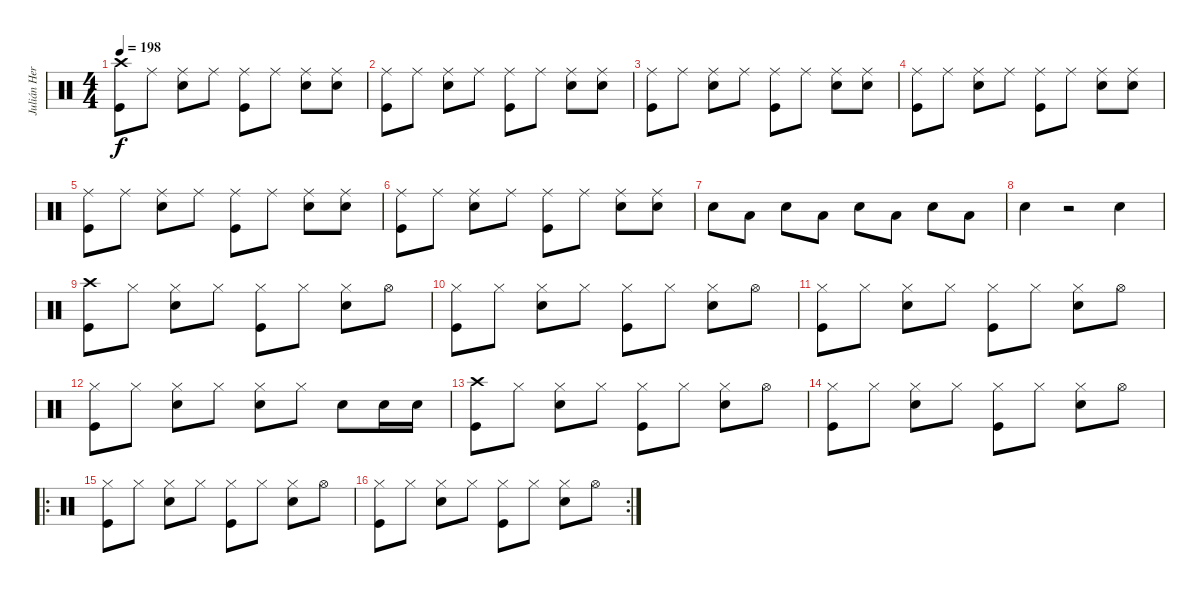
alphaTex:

\track ("Julián Hernández - Batería" "Julián Her") {instrument percussion}
\staff {score}
\articulation defaults
\ts (4 4)
\tempo 198
\clef neutral
\ks c
("Crash high (hit)" "Kick (hit)").8{dy f} "Ride (middle)".8 ("Ride (middle)" "Electric Snare (hit)").8 "Ride (middle)".8 ("Ride (middle)" "Kick (hit)").8 "Ride (middle)".8 ("Ride (middle)" "Electric Snare (hit)").8 ("Ride (middle)" "Electric Snare (hit)").8 |
("Ride (middle)" "Kick (hit)").8 "Ride (middle)".8 ("Ride (middle)" "Electric Snare (hit)").8 "Ride (middle)".8 ("Ride (middle)" "Kick (hit)").8 "Ride (middle)".8 ("Ride (middle)" "Electric Snare (hit)").8 ("Ride (middle)" "Electric Snare (hit)").8 |
("Ride (middle)" "Kick (hit)").8 "Ride (middle)".8 ("Ride (middle)" "Electric Snare (hit)").8 "Ride (middle)".8 ("Ride (middle)" "Kick (hit)").8 "Ride (middle)".8 ("Ride (middle)" "Electric Snare (hit)").8 ("Ride (middle)" "Electric Snare (hit)").8 |
("Ride (middle)" "Kick (hit)").8 "Ride (middle)".8 ("Ride (middle)" "Electric Snare (hit)").8 "Ride (middle)".8 ("Ride (middle)" "Kick (hit)").8 "Ride (middle)".8 ("Ride (middle)" "Electric Snare (hit)").8 ("Ride (middle)" "Electric Snare (hit)").8 |
("Ride (middle)" "Kick (hit)").8 "Ride (middle)".8 ("Ride (middle)" "Electric Snare (hit)").8 "Ride (middle)".8 ("Ride (middle)" "Kick (hit)").8 "Ride (middle)".8 ("Ride (middle)" "Electric Snare (hit)").8 ("Ride (middle)" "Electric Snare (hit)").8 |
("Ride (middle)" "Kick (hit)").8 "Ride (middle)".8 ("Ride (middle)" "Electric Snare (hit)").8 "Ride (middle)".8 ("Ride (middle)" "Kick (hit)").8 "Ride (middle)".8 ("Ride (middle)" "Electric Snare (hit)").8 ("Ride (middle)" "Electric Snare (hit)").8 |
"Electric Snare (hit)".8 "Low Floor Tom (hit)".8 "Electric Snare (hit)".8 "Low Floor Tom (hit)".8 "Electric Snare (hit)".8 "Low Floor Tom (hit)".8 "Electric Snare (hit)".8 "Low Floor Tom (hit)".8 |
"Electric Snare (hit)".4 r.2 "Electric Snare (hit)".4 |
("Crash high (hit)" "Kick (hit)").8 "Hi-Hat (closed)".8 ("Hi-Hat (closed)" "Electric Snare (hit)").8 "Hi-Hat (closed)".8 ("Hi-Hat (closed)" "Kick (hit)").8 "Hi-Hat (closed)".8 ("Hi-Hat (closed)" "Electric Snare (hit)").8 "Hi-Hat (open)".8 |
("Hi-Hat (closed)" "Kick (hit)").8 "Hi-Hat (closed)".8 ("Hi-Hat (closed)" "Electric Snare (hit)").8 "Hi-Hat (closed)".8 ("Hi-Hat (closed)" "Kick (hit)").8 "Hi-Hat (closed)".8 ("Hi-Hat (closed)" "Electric Snare (hit)").8 "Hi-Hat (open)".8 |
("Hi-Hat (closed)" "Kick (hit)").8 "Hi-Hat (closed)".8 ("Hi-Hat (closed)" "Electric Snare (hit)").8 "Hi-Hat (closed)".8 ("Hi-Hat (closed)" "Kick (hit)").8 "Hi-Hat (closed)".8 ("Hi-Hat (closed)" "Electric Snare (hit)").8 "Hi-Hat (open)".8 |
("Hi-Hat (closed)" "Kick (hit)").8 "Hi-Hat (closed)".8 ("Hi-Hat (closed)" "Electric Snare (hit)").8 "Hi-Hat (closed)".8 ("Hi-Hat (closed)" "Electric Snare (hit)").8 "Hi-Hat (closed)".8 "Electric Snare (hit)".8 "Electric Snare (hit)".16 "Electric Snare (hit)".16 |
("Crash high (hit)" "Kick (hit)").8 "Hi-Hat (closed)".8 ("Hi-Hat (closed)" "Electric Snare (hit)").8 "Hi-Hat (closed)".8 ("Hi-Hat (closed)" "Kick (hit)").8 "Hi-Hat (closed)".8 ("Hi-Hat (closed)" "Electric Snare (hit)").8 "Hi-Hat (open)".8 |
("Hi-Hat (closed)" "Kick (hit)").8 "Hi-Hat (closed)".8 ("Hi-Hat (closed)" "Electric Snare (hit)").8 "Hi-Hat (closed)".8 ("Hi-Hat (closed)" "Kick (hit)").8 "Hi-Hat (closed)".8 ("Hi-Hat (closed)" "Electric Snare (hit)").8 "Hi-Hat (open)".8 |
\ro
("Hi-Hat (closed)" "Kick (hit)").8 "Hi-Hat (closed)".8 ("Hi-Hat (closed)" "Electric Snare (hit)").8 "Hi-Hat (closed)".8 ("Hi-Hat (closed)" "Kick (hit)").8 "Hi-Hat (closed)".8 ("Hi-Hat (closed)" "Electric Snare (hit)").8 "Hi-Hat (open)".8 |
\rc 2
("Hi-Hat (closed)" "Kick (hit)").8 "Hi-Hat (closed)".8 ("Hi-Hat (closed)" "Electric Snare (hit)").8 "Hi-Hat (closed)".8 ("Hi-Hat (closed)" "Kick (hit)").8 "Hi-Hat (closed)".8 ("Hi-Hat (closed)" "Electric Snare (hit)").8 "Hi-Hat (open)".8
